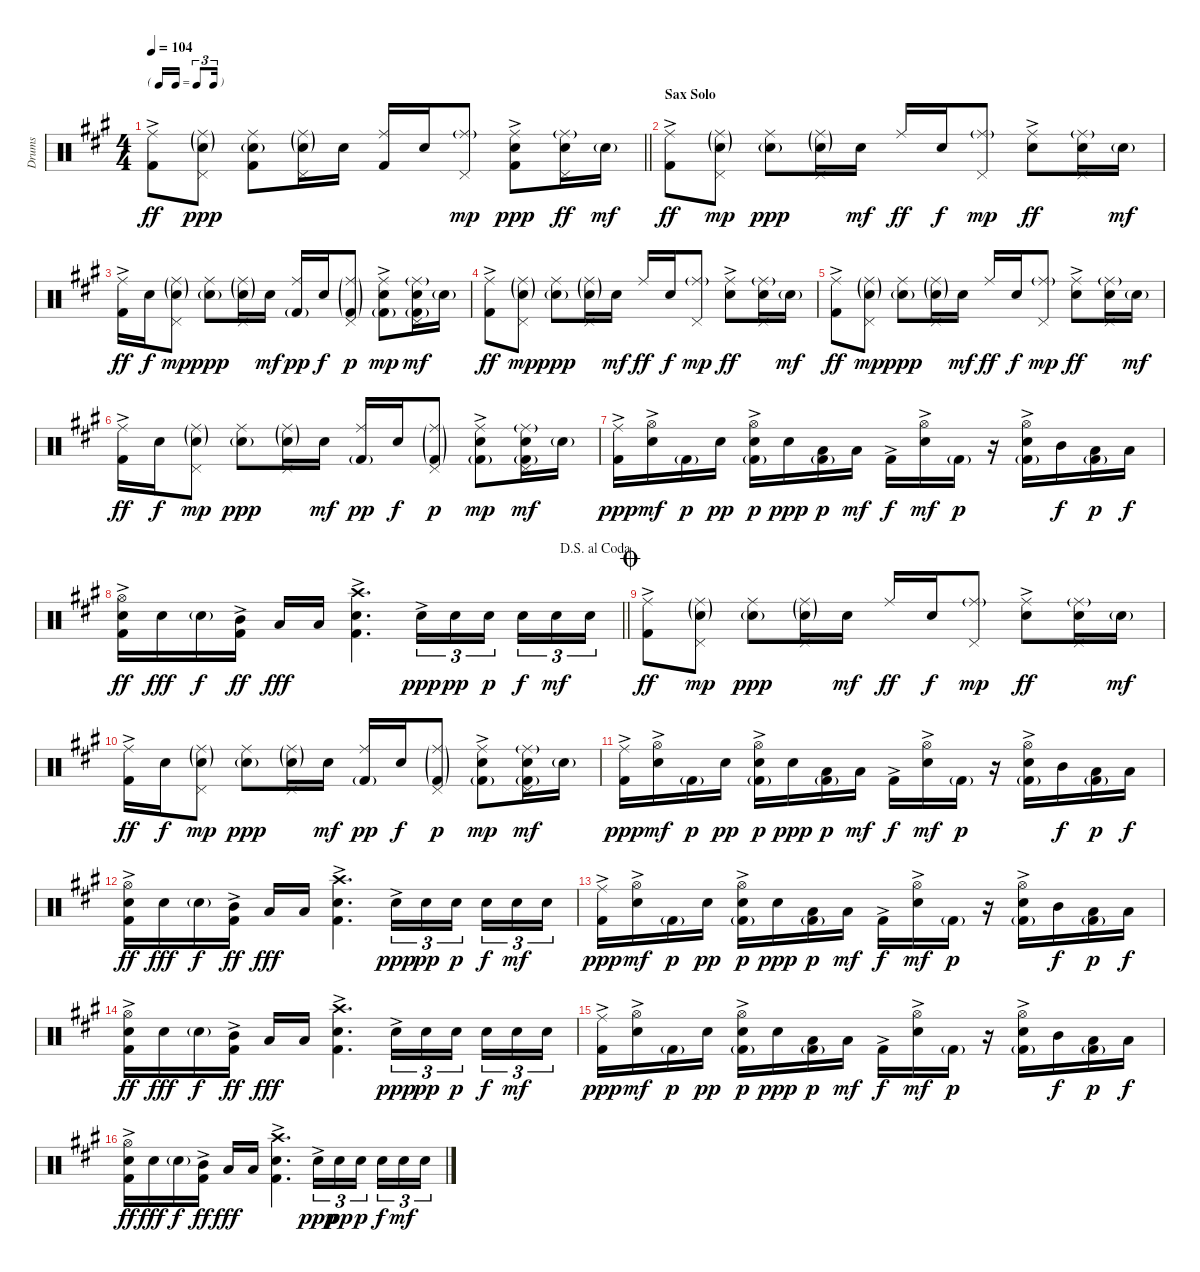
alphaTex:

\track ("Drums" "Drums") {instrument percussion}
\staff {score}
\articulation defaults
\ts (4 4)
\tf triplet16th
\tempo 104
\clef neutral
\barLineRight lightlight
\ks a
("Ride (middle)" "Kick (hit) 2"{ac}).8{dy ff} ("Ride (middle)"{g} "Pedal Hi-Hat (hit)" "Snare (hit) 2"{g}).8{dy ppp} ("Ride (middle)" "Snare (hit) 2"{g} "Kick (hit) 2").8 ("Ride (middle)"{g} "Pedal Hi-Hat (hit)" "Snare (hit) 2"{g}).16 "Snare (hit) 2".16 ("Ride (middle)" "Kick (hit) 2").16 "Snare (hit) 2".16 ("Ride (middle)"{g} "Pedal Hi-Hat (hit)").8{dy mp} ("Ride (middle)" "Snare (hit) 2"{ac} "Kick (hit) 2").8{dy ppp} ("Ride (middle)"{g} "Pedal Hi-Hat (hit)" "Snare (hit) 2").16{dy ff} "Snare (hit) 2"{g}.16{dy mf} |
\section ("" "Sax Solo")
("Ride (middle)" "Kick (hit) 2"{ac}).8{dy ff} ("Ride (middle)"{g} "Pedal Hi-Hat (hit)" "Snare (hit) 2"{g}).8{dy mp} ("Ride (middle)" "Snare (hit) 2"{g}).8{dy ppp} ("Ride (middle)"{g} "Pedal Hi-Hat (hit)" "Snare (hit) 2"{g}).16 "Snare (hit) 2".16{dy mf} "Ride (middle)".16{dy ff} "Snare (hit) 2".16{dy f} ("Ride (middle)"{g} "Pedal Hi-Hat (hit)").8{dy mp} ("Ride (middle)" "Snare (hit) 2"{ac}).8{dy ff} ("Ride (middle)"{g} "Pedal Hi-Hat (hit)" "Snare (hit) 2").16 "Snare (hit) 2"{g}.16{dy mf} |
("Ride (middle)" "Kick (hit) 2"{ac}).16{dy ff} "Snare (hit) 2".16{dy f} ("Ride (middle)"{g} "Pedal Hi-Hat (hit)" "Snare (hit) 2"{g}).8{dy mp} ("Ride (middle)" "Snare (hit) 2"{g}).8{dy ppp} ("Ride (middle)"{g} "Pedal Hi-Hat (hit)" "Snare (hit) 2"{g}).16 "Snare (hit) 2".16{dy mf} ("Ride (middle)" "Kick (hit) 2"{g}).16{dy pp} "Snare (hit) 2".16{dy f} ("Ride (middle)"{g} "Pedal Hi-Hat (hit)" "Kick (hit) 2"{g}).8{dy p} ("Ride (middle)" "Snare (hit) 2"{ac} "Kick (hit) 2"{g}).8{dy mp} ("Ride (middle)"{g} "Pedal Hi-Hat (hit)" "Snare (hit) 2" "Kick (hit) 2"{g}).16{dy mf} "Snare (hit) 2"{g}.16 |
("Ride (middle)" "Kick (hit) 2"{ac}).8{dy ff} ("Ride (middle)"{g} "Pedal Hi-Hat (hit)" "Snare (hit) 2"{g}).8{dy mp} ("Ride (middle)" "Snare (hit) 2"{g}).8{dy ppp} ("Ride (middle)"{g} "Pedal Hi-Hat (hit)" "Snare (hit) 2"{g}).16 "Snare (hit) 2".16{dy mf} "Ride (middle)".16{dy ff} "Snare (hit) 2".16{dy f} ("Ride (middle)"{g} "Pedal Hi-Hat (hit)").8{dy mp} ("Ride (middle)" "Snare (hit) 2"{ac}).8{dy ff} ("Ride (middle)"{g} "Pedal Hi-Hat (hit)" "Snare (hit) 2").16 "Snare (hit) 2"{g}.16{dy mf} |
("Ride (middle)" "Kick (hit) 2"{ac}).8{dy ff} ("Ride (middle)"{g} "Pedal Hi-Hat (hit)" "Snare (hit) 2"{g}).8{dy mp} ("Ride (middle)" "Snare (hit) 2"{g}).8{dy ppp} ("Ride (middle)"{g} "Pedal Hi-Hat (hit)" "Snare (hit) 2"{g}).16 "Snare (hit) 2".16{dy mf} "Ride (middle)".16{dy ff} "Snare (hit) 2".16{dy f} ("Ride (middle)"{g} "Pedal Hi-Hat (hit)").8{dy mp} ("Ride (middle)" "Snare (hit) 2"{ac}).8{dy ff} ("Ride (middle)"{g} "Pedal Hi-Hat (hit)" "Snare (hit) 2").16 "Snare (hit) 2"{g}.16{dy mf} |
("Ride (middle)" "Kick (hit) 2"{ac}).16{dy ff} "Snare (hit) 2".16{dy f} ("Ride (middle)"{g} "Pedal Hi-Hat (hit)" "Snare (hit) 2"{g}).8{dy mp} ("Ride (middle)" "Snare (hit) 2"{g}).8{dy ppp} ("Ride (middle)"{g} "Pedal Hi-Hat (hit)" "Snare (hit) 2"{g}).16 "Snare (hit) 2".16{dy mf} ("Ride (middle)" "Kick (hit) 2"{g}).16{dy pp} "Snare (hit) 2".16{dy f} ("Ride (middle)"{g} "Pedal Hi-Hat (hit)" "Kick (hit) 2"{g}).8{dy p} ("Ride (middle)" "Snare (hit) 2"{ac} "Kick (hit) 2"{g}).8{dy mp} ("Ride (middle)"{g} "Pedal Hi-Hat (hit)" "Snare (hit) 2" "Kick (hit) 2"{g}).16{dy mf} "Snare (hit) 2"{g}.16 |
("Ride (middle)" "Kick (hit) 2"{ac}).16{dy ppp} ("Hi-Hat (open)" "Snare (hit) 2"{ac}).16{dy mf} "Kick (hit) 2"{g}.16{dy p} "Snare (hit) 2".16{dy pp} ("Hi-Hat (open)" "Snare (hit) 2"{ac} "Kick (hit) 2"{g}).16{dy p} "Snare (hit) 2".16{dy ppp} ("Low Tom (hit)" "Kick (hit) 2"{g}).16{dy p} "Low Floor Tom (hit)".16{dy mf} "Kick (hit) 2"{ac}.16{dy f} ("Hi-Hat (open)" "Snare (hit) 2"{ac}).16{dy mf} "Kick (hit) 2"{g}.16{dy p} r.16 ("Hi-Hat (open)" "Snare (hit) 2"{ac} "Kick (hit) 2"{g}).16 "Mid Tom (hit)".16{dy f} ("Low Tom (hit)" "Kick (hit) 2"{g}).16{dy p} "Low Floor Tom (hit)".16{dy f} |
\jump dalsegnoalcoda
\barLineRight lightlight
("Hi-Hat (open)" "Snare (hit) 2" "Kick (hit) 2"{ac}).16{dy ff} "Snare (hit) 2".16{dy fff} "Snare (hit) 2"{g}.16{dy f} ("Mid Tom (hit)" "Kick (hit) 2"{ac}).16{dy ff} "Low Tom (hit)".16{dy fff} "Low Floor Tom (hit)".16 ("Crash high (hit)" "Snare (hit) 2" "Kick (hit) 2"{ac}).4{d} "Snare (hit) 2"{ac}.16{tu (3 2) dy ppp} "Snare (hit) 2".16{tu (3 2) dy pp} "Snare (hit) 2".16{tu (3 2) dy p beam splitsecondary} "Snare (hit) 2".16{tu (3 2) dy f} "Snare (hit) 2".16{tu (3 2) dy mf} "Snare (hit) 2".16{tu (3 2)} |
\jump coda
("Ride (middle)" "Kick (hit) 2"{ac}).8{dy ff} ("Ride (middle)"{g} "Pedal Hi-Hat (hit)" "Snare (hit) 2"{g}).8{dy mp} ("Ride (middle)" "Snare (hit) 2"{g}).8{dy ppp} ("Ride (middle)"{g} "Pedal Hi-Hat (hit)" "Snare (hit) 2"{g}).16 "Snare (hit) 2".16{dy mf} "Ride (middle)".16{dy ff} "Snare (hit) 2".16{dy f} ("Ride (middle)"{g} "Pedal Hi-Hat (hit)").8{dy mp} ("Ride (middle)" "Snare (hit) 2"{ac}).8{dy ff} ("Ride (middle)"{g} "Pedal Hi-Hat (hit)" "Snare (hit) 2").16 "Snare (hit) 2"{g}.16{dy mf} |
("Ride (middle)" "Kick (hit) 2"{ac}).16{dy ff} "Snare (hit) 2".16{dy f} ("Ride (middle)"{g} "Pedal Hi-Hat (hit)" "Snare (hit) 2"{g}).8{dy mp} ("Ride (middle)" "Snare (hit) 2"{g}).8{dy ppp} ("Ride (middle)"{g} "Pedal Hi-Hat (hit)" "Snare (hit) 2"{g}).16 "Snare (hit) 2".16{dy mf} ("Ride (middle)" "Kick (hit) 2"{g}).16{dy pp} "Snare (hit) 2".16{dy f} ("Ride (middle)"{g} "Pedal Hi-Hat (hit)" "Kick (hit) 2"{g}).8{dy p} ("Ride (middle)" "Snare (hit) 2"{ac} "Kick (hit) 2"{g}).8{dy mp} ("Ride (middle)"{g} "Pedal Hi-Hat (hit)" "Snare (hit) 2" "Kick (hit) 2"{g}).16{dy mf} "Snare (hit) 2"{g}.16 |
("Ride (middle)" "Kick (hit) 2"{ac}).16{dy ppp} ("Hi-Hat (open)" "Snare (hit) 2"{ac}).16{dy mf} "Kick (hit) 2"{g}.16{dy p} "Snare (hit) 2".16{dy pp} ("Hi-Hat (open)" "Snare (hit) 2"{ac} "Kick (hit) 2"{g}).16{dy p} "Snare (hit) 2".16{dy ppp} ("Low Tom (hit)" "Kick (hit) 2"{g}).16{dy p} "Low Floor Tom (hit)".16{dy mf} "Kick (hit) 2"{ac}.16{dy f} ("Hi-Hat (open)" "Snare (hit) 2"{ac}).16{dy mf} "Kick (hit) 2"{g}.16{dy p} r.16 ("Hi-Hat (open)" "Snare (hit) 2"{ac} "Kick (hit) 2"{g}).16 "Mid Tom (hit)".16{dy f} ("Low Tom (hit)" "Kick (hit) 2"{g}).16{dy p} "Low Floor Tom (hit)".16{dy f} |
("Hi-Hat (open)" "Snare (hit) 2" "Kick (hit) 2"{ac}).16{dy ff} "Snare (hit) 2".16{dy fff} "Snare (hit) 2"{g}.16{dy f} ("Mid Tom (hit)" "Kick (hit) 2"{ac}).16{dy ff} "Low Tom (hit)".16{dy fff} "Low Floor Tom (hit)".16 ("Crash high (hit)" "Snare (hit) 2" "Kick (hit) 2"{ac}).4{d} "Snare (hit) 2"{ac}.16{tu (3 2) dy ppp} "Snare (hit) 2".16{tu (3 2) dy pp} "Snare (hit) 2".16{tu (3 2) dy p beam splitsecondary} "Snare (hit) 2".16{tu (3 2) dy f} "Snare (hit) 2".16{tu (3 2) dy mf} "Snare (hit) 2".16{tu (3 2)} |
("Ride (middle)" "Kick (hit) 2"{ac}).16{dy ppp} ("Hi-Hat (open)" "Snare (hit) 2"{ac}).16{dy mf} "Kick (hit) 2"{g}.16{dy p} "Snare (hit) 2".16{dy pp} ("Hi-Hat (open)" "Snare (hit) 2"{ac} "Kick (hit) 2"{g}).16{dy p} "Snare (hit) 2".16{dy ppp} ("Low Tom (hit)" "Kick (hit) 2"{g}).16{dy p} "Low Floor Tom (hit)".16{dy mf} "Kick (hit) 2"{ac}.16{dy f} ("Hi-Hat (open)" "Snare (hit) 2"{ac}).16{dy mf} "Kick (hit) 2"{g}.16{dy p} r.16 ("Hi-Hat (open)" "Snare (hit) 2"{ac} "Kick (hit) 2"{g}).16 "Mid Tom (hit)".16{dy f} ("Low Tom (hit)" "Kick (hit) 2"{g}).16{dy p} "Low Floor Tom (hit)".16{dy f} |
("Hi-Hat (open)" "Snare (hit) 2" "Kick (hit) 2"{ac}).16{dy ff} "Snare (hit) 2".16{dy fff} "Snare (hit) 2"{g}.16{dy f} ("Mid Tom (hit)" "Kick (hit) 2"{ac}).16{dy ff} "Low Tom (hit)".16{dy fff} "Low Floor Tom (hit)".16 ("Crash high (hit)" "Snare (hit) 2" "Kick (hit) 2"{ac}).4{d} "Snare (hit) 2"{ac}.16{tu (3 2) dy ppp} "Snare (hit) 2".16{tu (3 2) dy pp} "Snare (hit) 2".16{tu (3 2) dy p beam splitsecondary} "Snare (hit) 2".16{tu (3 2) dy f} "Snare (hit) 2".16{tu (3 2) dy mf} "Snare (hit) 2".16{tu (3 2)} |
("Ride (middle)" "Kick (hit) 2"{ac}).16{dy ppp} ("Hi-Hat (open)" "Snare (hit) 2"{ac}).16{dy mf} "Kick (hit) 2"{g}.16{dy p} "Snare (hit) 2".16{dy pp} ("Hi-Hat (open)" "Snare (hit) 2"{ac} "Kick (hit) 2"{g}).16{dy p} "Snare (hit) 2".16{dy ppp} ("Low Tom (hit)" "Kick (hit) 2"{g}).16{dy p} "Low Floor Tom (hit)".16{dy mf} "Kick (hit) 2"{ac}.16{dy f} ("Hi-Hat (open)" "Snare (hit) 2"{ac}).16{dy mf} "Kick (hit) 2"{g}.16{dy p} r.16 ("Hi-Hat (open)" "Snare (hit) 2"{ac} "Kick (hit) 2"{g}).16 "Mid Tom (hit)".16{dy f} ("Low Tom (hit)" "Kick (hit) 2"{g}).16{dy p} "Low Floor Tom (hit)".16{dy f} |
("Hi-Hat (open)" "Snare (hit) 2" "Kick (hit) 2"{ac}).16{dy ff} "Snare (hit) 2".16{dy fff} "Snare (hit) 2"{g}.16{dy f} ("Mid Tom (hit)" "Kick (hit) 2"{ac}).16{dy ff} "Low Tom (hit)".16{dy fff} "Low Floor Tom (hit)".16 ("Crash high (hit)" "Snare (hit) 2" "Kick (hit) 2"{ac}).4{d} "Snare (hit) 2"{ac}.16{tu (3 2) dy ppp} "Snare (hit) 2".16{tu (3 2) dy pp} "Snare (hit) 2".16{tu (3 2) dy p beam splitsecondary} "Snare (hit) 2".16{tu (3 2) dy f} "Snare (hit) 2".16{tu (3 2) dy mf} "Snare (hit) 2".16{tu (3 2)}
